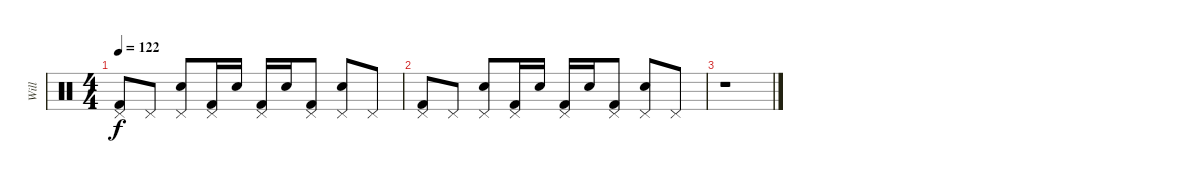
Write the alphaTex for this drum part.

\track ("Will" "Will") {instrument percussion}
\staff {score}
\articulation defaults
\ts (4 4)
\tempo 122
\clef neutral
\ks c
("Pedal Hi-Hat (hit)" "Kick (hit) 2").8{dy f} "Pedal Hi-Hat (hit)".8 ("Pedal Hi-Hat (hit)" "Electric Snare (hit)").8 ("Pedal Hi-Hat (hit)" "Kick (hit) 2").16 "Electric Snare (hit)".16 ("Pedal Hi-Hat (hit)" "Kick (hit) 2").16 "Electric Snare (hit)".16 ("Pedal Hi-Hat (hit)" "Kick (hit) 2").8 ("Pedal Hi-Hat (hit)" "Electric Snare (hit)").8 "Pedal Hi-Hat (hit)".8 |
("Pedal Hi-Hat (hit)" "Kick (hit) 2").8 "Pedal Hi-Hat (hit)".8 ("Pedal Hi-Hat (hit)" "Electric Snare (hit)").8 ("Pedal Hi-Hat (hit)" "Kick (hit) 2").16 "Electric Snare (hit)".16 ("Pedal Hi-Hat (hit)" "Kick (hit) 2").16 "Electric Snare (hit)".16 ("Pedal Hi-Hat (hit)" "Kick (hit) 2").8 ("Pedal Hi-Hat (hit)" "Electric Snare (hit)").8 "Pedal Hi-Hat (hit)".8 |
r.1
